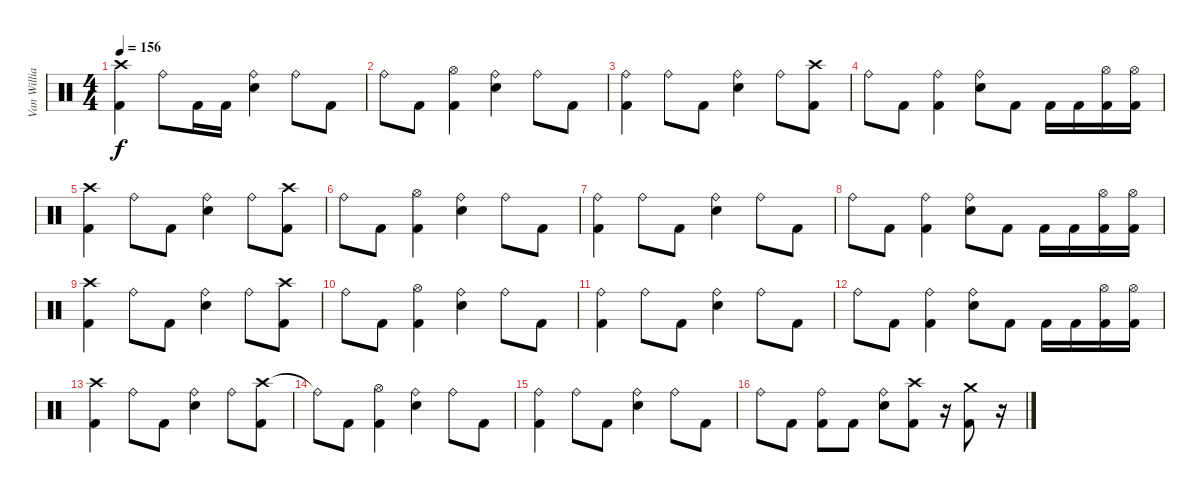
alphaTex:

\track ("Van Williams" "Van Willia") {instrument percussion}
\staff {score}
\articulation defaults
\ts (4 4)
\section ("" "")
\tempo 156
\clef neutral
\ks c
("Crash high (hit)" "Kick (hit) 2").4{dy f} "Ride (bell)".8 "Kick (hit) 2".16 "Kick (hit) 2".16 ("Ride (bell)" "Electric Snare (hit)").4 "Ride (bell)".8 "Kick (hit) 2".8 |
"Ride (bell)".8 "Kick (hit) 2".8 ("Hi-Hat (open)" "Kick (hit) 2").4 ("Ride (bell)" "Electric Snare (hit)").4 "Ride (bell)".8 "Kick (hit) 2".8 |
("Ride (bell)" "Kick (hit) 2").4 "Ride (bell)".8 "Kick (hit) 2".8 ("Ride (bell)" "Electric Snare (hit)").4 "Ride (bell)".8 ("Crash high (hit)" "Kick (hit) 2").8 |
"Ride (bell)".8 "Kick (hit) 2".8 ("Ride (bell)" "Kick (hit) 2").4 ("Ride (bell)" "Electric Snare (hit)").8 "Kick (hit) 2".8 "Kick (hit) 2".16 "Kick (hit) 2".16 ("Hi-Hat (open)" "Kick (hit) 2").16 ("Hi-Hat (open)" "Kick (hit) 2").16 |
("Crash high (hit)" "Kick (hit) 2").4 "Ride (bell)".8 "Kick (hit) 2".8 ("Ride (bell)" "Electric Snare (hit)").4 "Ride (bell)".8 ("Crash high (hit)" "Kick (hit) 2").8 |
"Ride (bell)".8 "Kick (hit) 2".8 ("Hi-Hat (open)" "Kick (hit) 2").4 ("Ride (bell)" "Electric Snare (hit)").4 "Ride (bell)".8 "Kick (hit) 2".8 |
("Ride (bell)" "Kick (hit) 2").4 "Ride (bell)".8 "Kick (hit) 2".8 ("Ride (bell)" "Electric Snare (hit)").4 "Ride (bell)".8 "Kick (hit) 2".8 |
"Ride (bell)".8 "Kick (hit) 2".8 ("Ride (bell)" "Kick (hit) 2").4 ("Ride (bell)" "Electric Snare (hit)").8 "Kick (hit) 2".8 "Kick (hit) 2".16 "Kick (hit) 2".16 ("Hi-Hat (open)" "Kick (hit) 2").16 ("Hi-Hat (open)" "Kick (hit) 2").16 |
("Crash high (hit)" "Kick (hit) 2").4 "Ride (bell)".8 "Kick (hit) 2".8 ("Ride (bell)" "Electric Snare (hit)").4 "Ride (bell)".8 ("Crash high (hit)" "Kick (hit) 2").8 |
"Ride (bell)".8 "Kick (hit) 2".8 ("Hi-Hat (open)" "Kick (hit) 2").4 ("Ride (bell)" "Electric Snare (hit)").4 "Ride (bell)".8 "Kick (hit) 2".8 |
("Ride (bell)" "Kick (hit) 2").4 "Ride (bell)".8 "Kick (hit) 2".8 ("Ride (bell)" "Electric Snare (hit)").4 "Ride (bell)".8 "Kick (hit) 2".8 |
"Ride (bell)".8 "Kick (hit) 2".8 ("Ride (bell)" "Kick (hit) 2").4 ("Ride (bell)" "Electric Snare (hit)").8 "Kick (hit) 2".8 "Kick (hit) 2".16 "Kick (hit) 2".16 ("Hi-Hat (open)" "Kick (hit) 2").16 ("Hi-Hat (open)" "Kick (hit) 2").16 |
("Crash high (hit)" "Kick (hit) 2").4 "Ride (bell)".8 "Kick (hit) 2".8 ("Ride (bell)" "Electric Snare (hit)").4 "Ride (bell)".8 ("Crash high (hit)" "Kick (hit) 2").8 |
"Ride (bell)"{t}.8 "Kick (hit) 2".8 ("Hi-Hat (open)" "Kick (hit) 2").4 ("Ride (bell)" "Electric Snare (hit)").4 "Ride (bell)".8 "Kick (hit) 2".8 |
("Ride (bell)" "Kick (hit) 2").4 "Ride (bell)".8 "Kick (hit) 2".8 ("Ride (bell)" "Electric Snare (hit)").4 "Ride (bell)".8 "Kick (hit) 2".8 |
"Ride (bell)".8 "Kick (hit) 2".8 ("Ride (bell)" "Kick (hit) 2").8 "Kick (hit) 2".8 ("Ride (bell)" "Electric Snare (hit)").8 ("Crash high (hit)" "Kick (hit) 2").8 r.16 ("Crash medium (hit)" "Kick (hit) 2").8 r.16
